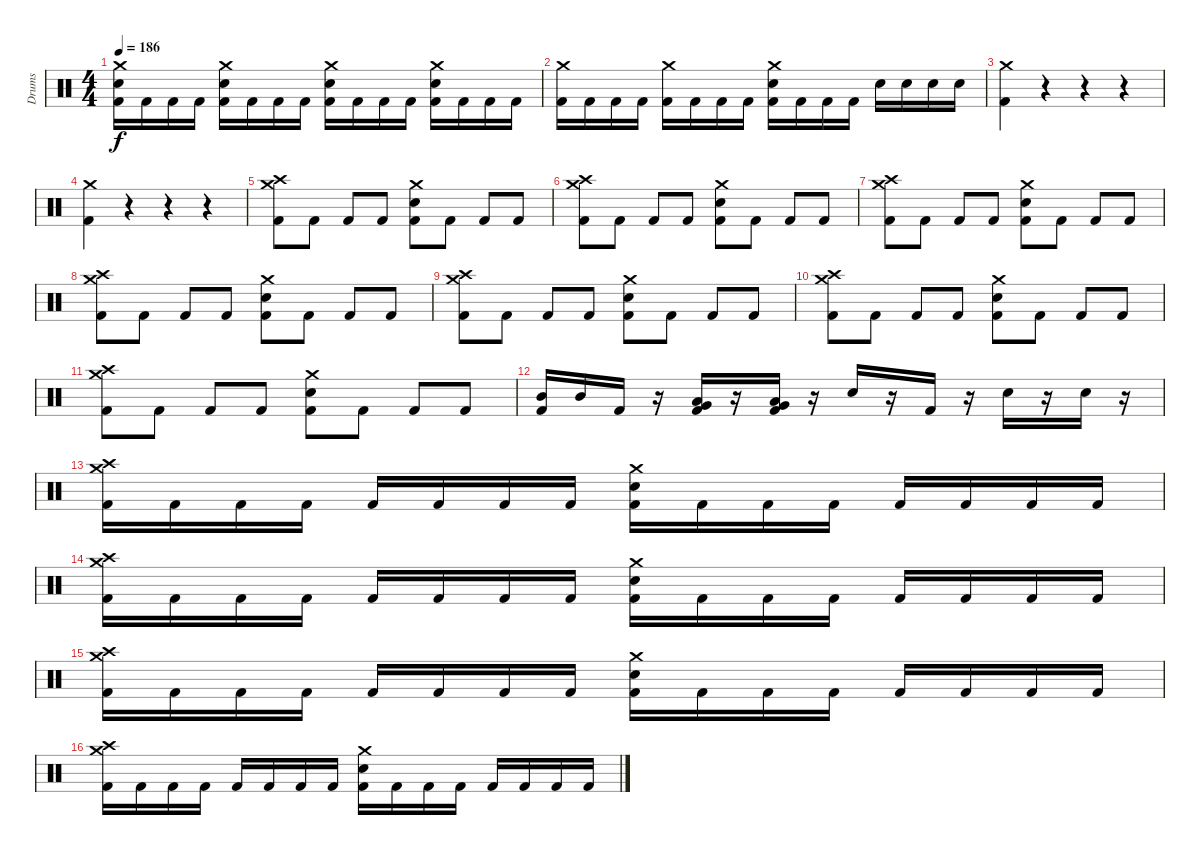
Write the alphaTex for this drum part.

\track ("Drums" "Drums") {instrument percussion}
\staff {score}
\articulation defaults
\ts (4 4)
\tempo 186
\clef neutral
\ks c
("Crash medium (hit)" "Snare (hit) 2" "Kick (hit) 2").16{dy f} "Kick (hit) 2".16 "Kick (hit) 2".16 "Kick (hit) 2".16 ("Crash medium (hit)" "Snare (hit) 2" "Kick (hit) 2").16 "Kick (hit) 2".16 "Kick (hit) 2".16 "Kick (hit) 2".16 ("Crash medium (hit)" "Snare (hit) 2" "Kick (hit) 2").16 "Kick (hit) 2".16 "Kick (hit) 2".16 "Kick (hit) 2".16 ("Crash medium (hit)" "Snare (hit) 2" "Kick (hit) 2").16 "Kick (hit) 2".16 "Kick (hit) 2".16 "Kick (hit) 2".16 |
("Crash medium (hit)" "Kick (hit) 2").16 "Kick (hit) 2".16 "Kick (hit) 2".16 "Kick (hit) 2".16 ("Crash medium (hit)" "Kick (hit) 2").16 "Kick (hit) 2".16 "Kick (hit) 2".16 "Kick (hit) 2".16 ("Crash medium (hit)" "Snare (hit) 2" "Kick (hit) 2").16 "Kick (hit) 2".16 "Kick (hit) 2".16 "Kick (hit) 2".16 "Snare (hit) 2".16 "Snare (hit) 2".16 "Snare (hit) 2".16 "Snare (hit) 2".16 |
("Crash medium (hit)" "Kick (hit) 2").4 r.4 r.4 r.4 |
("Crash medium (hit)" "Kick (hit) 2").4 r.4 r.4 r.4 |
("Crash high (hit)" "Crash medium (hit)" "Kick (hit) 2").8 "Kick (hit) 2".8 "Kick (hit) 2".8 "Kick (hit) 2".8 ("Crash medium (hit)" "Snare (hit) 2" "Kick (hit) 2").8 "Kick (hit) 2".8 "Kick (hit) 2".8 "Kick (hit) 2".8 |
("Crash high (hit)" "Crash medium (hit)" "Kick (hit) 2").8 "Kick (hit) 2".8 "Kick (hit) 2".8 "Kick (hit) 2".8 ("Crash medium (hit)" "Snare (hit) 2" "Kick (hit) 2").8 "Kick (hit) 2".8 "Kick (hit) 2".8 "Kick (hit) 2".8 |
("Crash high (hit)" "Crash medium (hit)" "Kick (hit) 2").8 "Kick (hit) 2".8 "Kick (hit) 2".8 "Kick (hit) 2".8 ("Crash medium (hit)" "Snare (hit) 2" "Kick (hit) 2").8 "Kick (hit) 2".8 "Kick (hit) 2".8 "Kick (hit) 2".8 |
("Crash high (hit)" "Crash medium (hit)" "Kick (hit) 2").8 "Kick (hit) 2".8 "Kick (hit) 2".8 "Kick (hit) 2".8 ("Crash medium (hit)" "Snare (hit) 2" "Kick (hit) 2").8 "Kick (hit) 2".8 "Kick (hit) 2".8 "Kick (hit) 2".8 |
("Crash high (hit)" "Crash medium (hit)" "Kick (hit) 2").8 "Kick (hit) 2".8 "Kick (hit) 2".8 "Kick (hit) 2".8 ("Crash medium (hit)" "Snare (hit) 2" "Kick (hit) 2").8 "Kick (hit) 2".8 "Kick (hit) 2".8 "Kick (hit) 2".8 |
("Crash high (hit)" "Crash medium (hit)" "Kick (hit) 2").8 "Kick (hit) 2".8 "Kick (hit) 2".8 "Kick (hit) 2".8 ("Crash medium (hit)" "Snare (hit) 2" "Kick (hit) 2").8 "Kick (hit) 2".8 "Kick (hit) 2".8 "Kick (hit) 2".8 |
("Crash high (hit)" "Crash medium (hit)" "Kick (hit) 2").8 "Kick (hit) 2".8 "Kick (hit) 2".8 "Kick (hit) 2".8 ("Crash medium (hit)" "Snare (hit) 2" "Kick (hit) 2").8 "Kick (hit) 2".8 "Kick (hit) 2".8 "Kick (hit) 2".8 |
("Mid Tom (hit)" "Kick (hit) 2").16 "Mid Tom (hit)".16 "Kick (hit) 2".16 r.16 ("Very Low Tom (hit)" "Low Tom (hit)" "Kick (hit) 2").16 r.16 ("Very Low Tom (hit)" "Low Tom (hit)" "Kick (hit) 2").16 r.16 "Snare (hit) 2".16 r.16 "Kick (hit) 2".16 r.16 "Snare (hit) 2".16 r.16 "Snare (hit) 2".16 r.16 |
("Crash high (hit)" "Crash medium (hit)" "Kick (hit) 2").16 "Kick (hit) 2".16 "Kick (hit) 2".16 "Kick (hit) 2".16 "Kick (hit) 2".16 "Kick (hit) 2".16 "Kick (hit) 2".16 "Kick (hit) 2".16 ("Crash medium (hit)" "Snare (hit) 2" "Kick (hit) 2").16 "Kick (hit) 2".16 "Kick (hit) 2".16 "Kick (hit) 2".16 "Kick (hit) 2".16 "Kick (hit) 2".16 "Kick (hit) 2".16 "Kick (hit) 2".16 |
("Crash high (hit)" "Crash medium (hit)" "Kick (hit) 2").16 "Kick (hit) 2".16 "Kick (hit) 2".16 "Kick (hit) 2".16 "Kick (hit) 2".16 "Kick (hit) 2".16 "Kick (hit) 2".16 "Kick (hit) 2".16 ("Crash medium (hit)" "Snare (hit) 2" "Kick (hit) 2").16 "Kick (hit) 2".16 "Kick (hit) 2".16 "Kick (hit) 2".16 "Kick (hit) 2".16 "Kick (hit) 2".16 "Kick (hit) 2".16 "Kick (hit) 2".16 |
("Crash high (hit)" "Crash medium (hit)" "Kick (hit) 2").16 "Kick (hit) 2".16 "Kick (hit) 2".16 "Kick (hit) 2".16 "Kick (hit) 2".16 "Kick (hit) 2".16 "Kick (hit) 2".16 "Kick (hit) 2".16 ("Crash medium (hit)" "Snare (hit) 2" "Kick (hit) 2").16 "Kick (hit) 2".16 "Kick (hit) 2".16 "Kick (hit) 2".16 "Kick (hit) 2".16 "Kick (hit) 2".16 "Kick (hit) 2".16 "Kick (hit) 2".16 |
("Crash high (hit)" "Crash medium (hit)" "Kick (hit) 2").16 "Kick (hit) 2".16 "Kick (hit) 2".16 "Kick (hit) 2".16 "Kick (hit) 2".16 "Kick (hit) 2".16 "Kick (hit) 2".16 "Kick (hit) 2".16 ("Crash medium (hit)" "Snare (hit) 2" "Kick (hit) 2").16 "Kick (hit) 2".16 "Kick (hit) 2".16 "Kick (hit) 2".16 "Kick (hit) 2".16 "Kick (hit) 2".16 "Kick (hit) 2".16 "Kick (hit) 2".16
